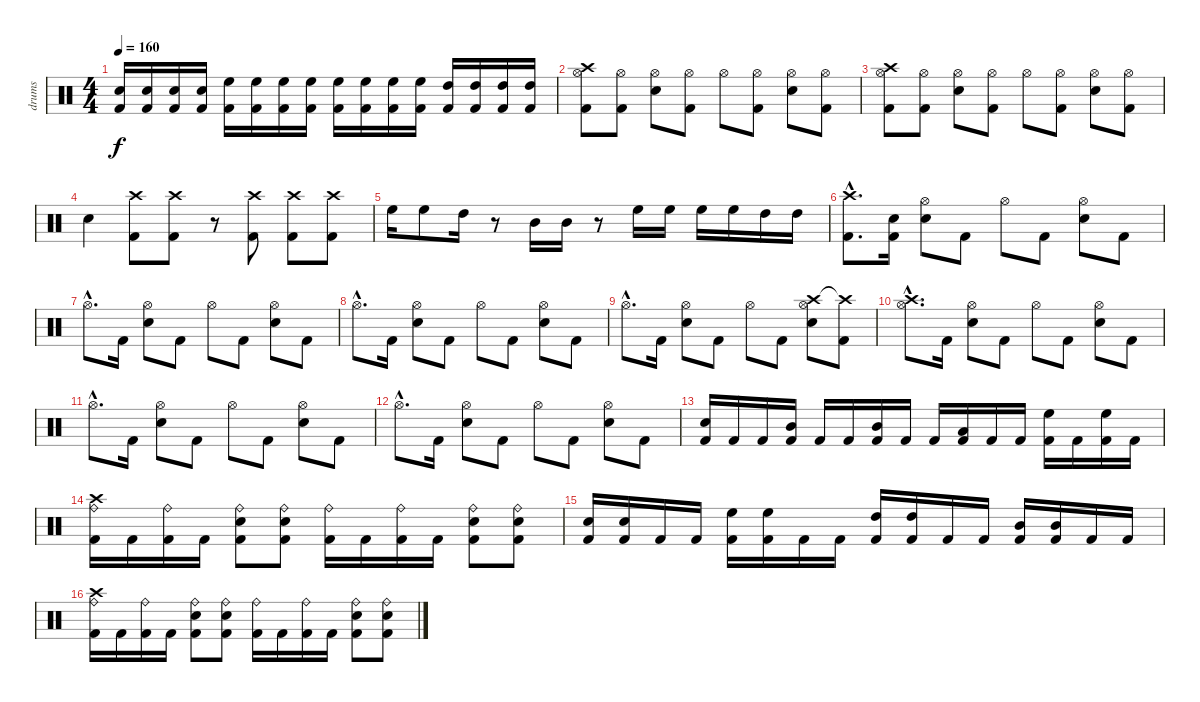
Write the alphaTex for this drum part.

\track ("drums" "drums") {instrument percussion}
\staff {score}
\articulation defaults
\ts (4 4)
\tempo 160
\clef neutral
\ks c
("Snare (hit) 2" "Kick (hit) 2").16{dy f} ("Snare (hit) 2" "Kick (hit) 2").16 ("Snare (hit) 2" "Kick (hit) 2").16 ("Snare (hit) 2" "Kick (hit) 2").16 ("High Floor Tom (hit)" "Kick (hit) 2").16 ("High Floor Tom (hit)" "Kick (hit) 2").16 ("High Floor Tom (hit)" "Kick (hit) 2").16 ("High Floor Tom (hit)" "Kick (hit) 2").16 ("High Floor Tom (hit)" "Kick (hit) 2").16 ("High Floor Tom (hit)" "Kick (hit) 2").16 ("High Floor Tom (hit)" "Kick (hit) 2").16 ("High Floor Tom (hit)" "Kick (hit) 2").16 ("High Tom (hit)" "Kick (hit) 2").16 ("High Tom (hit)" "Kick (hit) 2").16 ("High Tom (hit)" "Kick (hit) 2").16 ("High Tom (hit)" "Kick (hit) 2").16 |
("Crash high (hit)" "Hi-Hat (open)" "Kick (hit) 2").8 ("Hi-Hat (open)" "Kick (hit) 2").8 ("Hi-Hat (open)" "Snare (hit) 2").8 ("Hi-Hat (open)" "Kick (hit) 2").8 "Hi-Hat (open)".8 ("Hi-Hat (open)" "Kick (hit) 2").8 ("Hi-Hat (open)" "Snare (hit) 2").8 ("Hi-Hat (open)" "Kick (hit) 2").8 |
("Crash high (hit)" "Hi-Hat (open)" "Kick (hit) 2").8 ("Hi-Hat (open)" "Kick (hit) 2").8 ("Hi-Hat (open)" "Snare (hit) 2").8 ("Hi-Hat (open)" "Kick (hit) 2").8 "Hi-Hat (open)".8 ("Hi-Hat (open)" "Kick (hit) 2").8 ("Hi-Hat (open)" "Snare (hit) 2").8 ("Hi-Hat (open)" "Kick (hit) 2").8 |
"Snare (hit) 2".4 ("Crash high (hit)" "Kick (hit) 2").8 ("Crash high (hit)" "Kick (hit) 2").8 r.8 ("Crash high (hit)" "Kick (hit) 2").8 ("Crash high (hit)" "Kick (hit) 2").8 ("Crash high (hit)" "Kick (hit) 2").8 |
"High Floor Tom (hit)".16 "High Floor Tom (hit)".8 "High Tom (hit)".16 r.8 "Mid Tom (hit)".16 "Mid Tom (hit)".16 r.8 "High Floor Tom (hit)".16 "High Floor Tom (hit)".16 "High Floor Tom (hit)".16 "High Floor Tom (hit)".16 "High Tom (hit)".16 "High Tom (hit)".16 |
("Crash high (hit)"{hac} "Kick (hit) 2"{hac}).8{d} ("Snare (hit) 2" "Kick (hit) 2").16 ("Hi-Hat (open)" "Snare (hit) 2").8 "Kick (hit) 2".8 "Hi-Hat (open)".8 "Kick (hit) 2".8 ("Hi-Hat (open)" "Snare (hit) 2").8 "Kick (hit) 2".8 |
"Hi-Hat (open)"{hac}.8{d} "Kick (hit) 2".16 ("Hi-Hat (open)" "Snare (hit) 2").8 "Kick (hit) 2".8 "Hi-Hat (open)".8 "Kick (hit) 2".8 ("Hi-Hat (open)" "Snare (hit) 2").8 "Kick (hit) 2".8 |
"Hi-Hat (open)"{hac}.8{d} "Kick (hit) 2".16 ("Hi-Hat (open)" "Snare (hit) 2").8 "Kick (hit) 2".8 "Hi-Hat (open)".8 "Kick (hit) 2".8 ("Hi-Hat (open)" "Snare (hit) 2").8 "Kick (hit) 2".8 |
"Hi-Hat (open)"{hac}.8{d} "Kick (hit) 2".16 ("Hi-Hat (open)" "Snare (hit) 2").8 "Kick (hit) 2".8 "Hi-Hat (open)".8 "Kick (hit) 2".8 ("Crash high (hit)" "Hi-Hat (open)" "Snare (hit) 2").8 ("Crash high (hit)"{t} "Kick (hit) 2").8 |
("Crash high (hit)"{hac} "Hi-Hat (open)"{hac}).8{d} "Kick (hit) 2".16 ("Hi-Hat (open)" "Snare (hit) 2").8 "Kick (hit) 2".8 "Hi-Hat (open)".8 "Kick (hit) 2".8 ("Hi-Hat (open)" "Snare (hit) 2").8 "Kick (hit) 2".8 |
"Hi-Hat (open)"{hac}.8{d} "Kick (hit) 2".16 ("Hi-Hat (open)" "Snare (hit) 2").8 "Kick (hit) 2".8 "Hi-Hat (open)".8 "Kick (hit) 2".8 ("Hi-Hat (open)" "Snare (hit) 2").8 "Kick (hit) 2".8 |
"Hi-Hat (open)"{hac}.8{d} "Kick (hit) 2".16 ("Hi-Hat (open)" "Snare (hit) 2").8 "Kick (hit) 2".8 "Hi-Hat (open)".8 "Kick (hit) 2".8 ("Hi-Hat (open)" "Snare (hit) 2").8 "Kick (hit) 2".8 |
("Snare (hit) 2" "Kick (hit) 2").16 "Kick (hit) 2".16 "Kick (hit) 2".16 ("Mid Tom (hit)" "Kick (hit) 2").16 "Kick (hit) 2".16 "Kick (hit) 2".16 ("Mid Tom (hit)" "Kick (hit) 2").16 "Kick (hit) 2".16 "Kick (hit) 2".16 ("Low Tom (hit)" "Kick (hit) 2").16 "Kick (hit) 2".16 "Kick (hit) 2".16 ("High Floor Tom (hit)" "Kick (hit) 2").16 "Kick (hit) 2".16 ("High Floor Tom (hit)" "Kick (hit) 2").16 "Kick (hit) 2".16 |
("Crash high (hit)" "Ride (bell)" "Kick (hit) 2").16 "Kick (hit) 2".16 ("Ride (bell)" "Kick (hit) 2").16 "Kick (hit) 2".16 ("Ride (bell)" "Snare (hit) 2" "Kick (hit) 2").8 ("Ride (bell)" "Snare (hit) 2" "Kick (hit) 2").8 ("Ride (bell)" "Kick (hit) 2").16 "Kick (hit) 2".16 ("Ride (bell)" "Kick (hit) 2").16 "Kick (hit) 2".16 ("Ride (bell)" "Snare (hit) 2" "Kick (hit) 2").8 ("Ride (bell)" "Snare (hit) 2" "Kick (hit) 2").8 |
("Snare (hit) 2" "Kick (hit) 2").16 ("Snare (hit) 2" "Kick (hit) 2").16 "Kick (hit) 2".16 "Kick (hit) 2".16 ("High Floor Tom (hit)" "Kick (hit) 2").16 ("High Floor Tom (hit)" "Kick (hit) 2").16 "Kick (hit) 2".16 "Kick (hit) 2".16 ("High Tom (hit)" "Kick (hit) 2").16 ("High Tom (hit)" "Kick (hit) 2").16 "Kick (hit) 2".16 "Kick (hit) 2".16 ("Mid Tom (hit)" "Kick (hit) 2").16 ("Mid Tom (hit)" "Kick (hit) 2").16 "Kick (hit) 2".16 "Kick (hit) 2".16 |
("Crash high (hit)" "Ride (bell)" "Kick (hit) 2").16 "Kick (hit) 2".16 ("Ride (bell)" "Kick (hit) 2").16 "Kick (hit) 2".16 ("Ride (bell)" "Snare (hit) 2" "Kick (hit) 2").8 ("Ride (bell)" "Snare (hit) 2" "Kick (hit) 2").8 ("Ride (bell)" "Kick (hit) 2").16 "Kick (hit) 2".16 ("Ride (bell)" "Kick (hit) 2").16 "Kick (hit) 2".16 ("Ride (bell)" "Snare (hit) 2" "Kick (hit) 2").8 ("Ride (bell)" "Snare (hit) 2" "Kick (hit) 2").8
